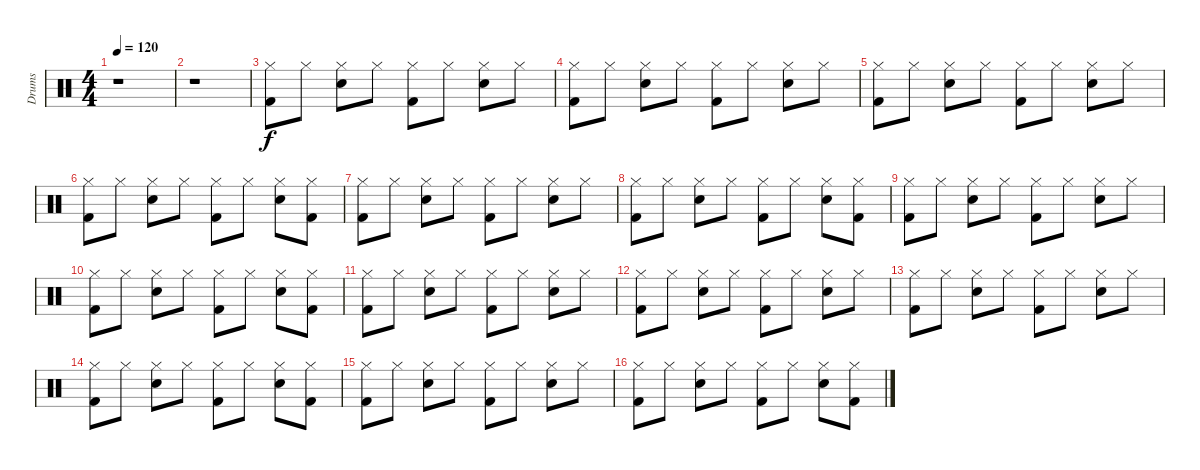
\track ("Drums" "Drums") {instrument percussion}
\staff {score}
\articulation defaults
\ts (4 4)
\tempo 120
\clef neutral
\ks c
r.1{dy f} |
r.1 |
("Hi-Hat (closed)" "Kick (hit) 2").8 "Hi-Hat (closed)".8 ("Hi-Hat (closed)" "Electric Snare (hit)").8 "Hi-Hat (closed)".8 ("Hi-Hat (closed)" "Kick (hit) 2").8 "Hi-Hat (closed)".8 ("Hi-Hat (closed)" "Electric Snare (hit)").8 "Hi-Hat (closed)".8 |
("Hi-Hat (closed)" "Kick (hit) 2").8 "Hi-Hat (closed)".8 ("Hi-Hat (closed)" "Electric Snare (hit)").8 "Hi-Hat (closed)".8 ("Hi-Hat (closed)" "Kick (hit) 2").8 "Hi-Hat (closed)".8 ("Hi-Hat (closed)" "Electric Snare (hit)").8 "Hi-Hat (closed)".8 |
("Hi-Hat (closed)" "Kick (hit) 2").8 "Hi-Hat (closed)".8 ("Hi-Hat (closed)" "Electric Snare (hit)").8 "Hi-Hat (closed)".8 ("Hi-Hat (closed)" "Kick (hit) 2").8 "Hi-Hat (closed)".8 ("Hi-Hat (closed)" "Electric Snare (hit)").8 "Hi-Hat (closed)".8 |
("Hi-Hat (closed)" "Kick (hit) 2").8 "Hi-Hat (closed)".8 ("Hi-Hat (closed)" "Electric Snare (hit)").8 "Hi-Hat (closed)".8 ("Hi-Hat (closed)" "Kick (hit) 2").8 "Hi-Hat (closed)".8 ("Hi-Hat (closed)" "Electric Snare (hit)").8 ("Hi-Hat (closed)" "Kick (hit) 2").8 |
("Hi-Hat (closed)" "Kick (hit) 2").8 "Hi-Hat (closed)".8 ("Hi-Hat (closed)" "Electric Snare (hit)").8 "Hi-Hat (closed)".8 ("Hi-Hat (closed)" "Kick (hit) 2").8 "Hi-Hat (closed)".8 ("Hi-Hat (closed)" "Electric Snare (hit)").8 "Hi-Hat (closed)".8 |
("Hi-Hat (closed)" "Kick (hit) 2").8 "Hi-Hat (closed)".8 ("Hi-Hat (closed)" "Electric Snare (hit)").8 "Hi-Hat (closed)".8 ("Hi-Hat (closed)" "Kick (hit) 2").8 "Hi-Hat (closed)".8 ("Hi-Hat (closed)" "Electric Snare (hit)").8 ("Hi-Hat (closed)" "Kick (hit) 2").8 |
("Hi-Hat (closed)" "Kick (hit) 2").8 "Hi-Hat (closed)".8 ("Hi-Hat (closed)" "Electric Snare (hit)").8 "Hi-Hat (closed)".8 ("Hi-Hat (closed)" "Kick (hit) 2").8 "Hi-Hat (closed)".8 ("Hi-Hat (closed)" "Electric Snare (hit)").8 "Hi-Hat (closed)".8 |
("Hi-Hat (closed)" "Kick (hit) 2").8 "Hi-Hat (closed)".8 ("Hi-Hat (closed)" "Electric Snare (hit)").8 "Hi-Hat (closed)".8 ("Hi-Hat (closed)" "Kick (hit) 2").8 "Hi-Hat (closed)".8 ("Hi-Hat (closed)" "Electric Snare (hit)").8 ("Hi-Hat (closed)" "Kick (hit) 2").8 |
("Hi-Hat (closed)" "Kick (hit) 2").8 "Hi-Hat (closed)".8 ("Hi-Hat (closed)" "Electric Snare (hit)").8 "Hi-Hat (closed)".8 ("Hi-Hat (closed)" "Kick (hit) 2").8 "Hi-Hat (closed)".8 ("Hi-Hat (closed)" "Electric Snare (hit)").8 "Hi-Hat (closed)".8 |
("Hi-Hat (closed)" "Kick (hit) 2").8 "Hi-Hat (closed)".8 ("Hi-Hat (closed)" "Electric Snare (hit)").8 "Hi-Hat (closed)".8 ("Hi-Hat (closed)" "Kick (hit) 2").8 "Hi-Hat (closed)".8 ("Hi-Hat (closed)" "Electric Snare (hit)").8 "Hi-Hat (closed)".8 |
("Hi-Hat (closed)" "Kick (hit) 2").8 "Hi-Hat (closed)".8 ("Hi-Hat (closed)" "Electric Snare (hit)").8 "Hi-Hat (closed)".8 ("Hi-Hat (closed)" "Kick (hit) 2").8 "Hi-Hat (closed)".8 ("Hi-Hat (closed)" "Electric Snare (hit)").8 "Hi-Hat (closed)".8 |
("Hi-Hat (closed)" "Kick (hit) 2").8 "Hi-Hat (closed)".8 ("Hi-Hat (closed)" "Electric Snare (hit)").8 "Hi-Hat (closed)".8 ("Hi-Hat (closed)" "Kick (hit) 2").8 "Hi-Hat (closed)".8 ("Hi-Hat (closed)" "Electric Snare (hit)").8 ("Hi-Hat (closed)" "Kick (hit) 2").8 |
("Hi-Hat (closed)" "Kick (hit) 2").8 "Hi-Hat (closed)".8 ("Hi-Hat (closed)" "Electric Snare (hit)").8 "Hi-Hat (closed)".8 ("Hi-Hat (closed)" "Kick (hit) 2").8 "Hi-Hat (closed)".8 ("Hi-Hat (closed)" "Electric Snare (hit)").8 "Hi-Hat (closed)".8 |
("Hi-Hat (closed)" "Kick (hit) 2").8 "Hi-Hat (closed)".8 ("Hi-Hat (closed)" "Electric Snare (hit)").8 "Hi-Hat (closed)".8 ("Hi-Hat (closed)" "Kick (hit) 2").8 "Hi-Hat (closed)".8 ("Hi-Hat (closed)" "Electric Snare (hit)").8 ("Hi-Hat (closed)" "Kick (hit) 2").8
